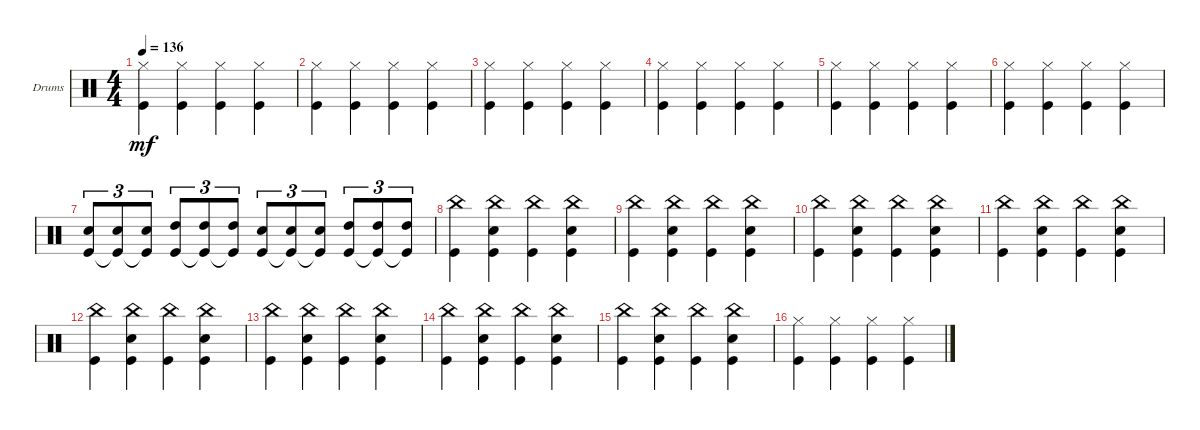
\defaultSystemsLayout 4
\bracketExtendMode groupsimilarinstruments
\firstSystemTrackNameOrientation horizontal
\otherSystemsTrackNameOrientation horizontal
\track ("Drumkit" "Drums") {instrument percussion}
\staff {score}
\articulation defaults
\ts (4 4)
\tempo 136
\clef neutral
\ks c
("Hi-Hat (closed)" "Kick (hit)").4{dy mf} ("Hi-Hat (closed)" "Kick (hit)").4 ("Hi-Hat (closed)" "Kick (hit)").4 ("Hi-Hat (closed)" "Kick (hit)").4 |
("Hi-Hat (closed)" "Kick (hit)").4 ("Hi-Hat (closed)" "Kick (hit)").4 ("Hi-Hat (closed)" "Kick (hit)").4 ("Hi-Hat (closed)" "Kick (hit)").4 |
("Hi-Hat (closed)" "Kick (hit)").4 ("Hi-Hat (closed)" "Kick (hit)").4 ("Hi-Hat (closed)" "Kick (hit)").4 ("Hi-Hat (closed)" "Kick (hit)").4 |
("Hi-Hat (closed)" "Kick (hit)").4 ("Hi-Hat (closed)" "Kick (hit)").4 ("Hi-Hat (closed)" "Kick (hit)").4 ("Hi-Hat (closed)" "Kick (hit)").4 |
("Hi-Hat (closed)" "Kick (hit)").4 ("Hi-Hat (closed)" "Kick (hit)").4 ("Hi-Hat (closed)" "Kick (hit)").4 ("Hi-Hat (closed)" "Kick (hit)").4 |
("Hi-Hat (closed)" "Kick (hit)").4 ("Hi-Hat (closed)" "Kick (hit)").4 ("Hi-Hat (closed)" "Kick (hit)").4 ("Hi-Hat (closed)" "Kick (hit)").4 |
("Snare (hit) 2" "Kick (hit)").8{tu (3 2)} ("Snare (hit) 2" "Kick (hit)"{t}).8{tu (3 2)} ("Snare (hit) 2" "Kick (hit)"{t}).8{tu (3 2)} ("High Tom (hit)" "Kick (hit)").8{tu (3 2)} ("High Tom (hit)" "Kick (hit)"{t}).8{tu (3 2)} ("High Tom (hit)" "Kick (hit)"{t}).8{tu (3 2)} ("Snare (hit) 2" "Kick (hit)").8{tu (3 2)} ("Snare (hit) 2" "Kick (hit)"{t}).8{tu (3 2)} ("Snare (hit) 2" "Kick (hit)"{t}).8{tu (3 2)} ("High Tom (hit)" "Kick (hit)").8{tu (3 2)} ("High Tom (hit)" "Kick (hit)"{t}).8{tu (3 2)} ("High Tom (hit)" "Kick (hit)"{t}).8{tu (3 2)} |
("Kick (hit)" "China (hit)").4 ("Kick (hit)" "Snare (hit) 2" "China (hit)").4 ("Kick (hit)" "China (hit)").4 ("Kick (hit)" "Snare (hit) 2" "China (hit)").4 |
("Kick (hit)" "China (hit)").4 ("Kick (hit)" "Snare (hit) 2" "China (hit)").4 ("Kick (hit)" "China (hit)").4 ("Kick (hit)" "Snare (hit) 2" "China (hit)").4 |
("Kick (hit)" "China (hit)").4 ("Kick (hit)" "Snare (hit) 2" "China (hit)").4 ("Kick (hit)" "China (hit)").4 ("Kick (hit)" "Snare (hit) 2" "China (hit)").4 |
("Kick (hit)" "China (hit)").4 ("Kick (hit)" "Snare (hit) 2" "China (hit)").4 ("Kick (hit)" "China (hit)").4 ("Kick (hit)" "Snare (hit) 2" "China (hit)").4 |
("Kick (hit)" "China (hit)").4 ("Kick (hit)" "Snare (hit) 2" "China (hit)").4 ("Kick (hit)" "China (hit)").4 ("Kick (hit)" "Snare (hit) 2" "China (hit)").4 |
("Kick (hit)" "China (hit)").4 ("Kick (hit)" "Snare (hit) 2" "China (hit)").4 ("Kick (hit)" "China (hit)").4 ("Kick (hit)" "Snare (hit) 2" "China (hit)").4 |
("Kick (hit)" "China (hit)").4 ("Kick (hit)" "Snare (hit) 2" "China (hit)").4 ("Kick (hit)" "China (hit)").4 ("Kick (hit)" "Snare (hit) 2" "China (hit)").4 |
("Kick (hit)" "China (hit)").4 ("Kick (hit)" "Snare (hit) 2" "China (hit)").4 ("Kick (hit)" "China (hit)").4 ("Kick (hit)" "Snare (hit) 2" "China (hit)").4 |
("Hi-Hat (closed)" "Kick (hit)").4 ("Hi-Hat (closed)" "Kick (hit)").4 ("Hi-Hat (closed)" "Kick (hit)").4 ("Hi-Hat (closed)" "Kick (hit)").4
